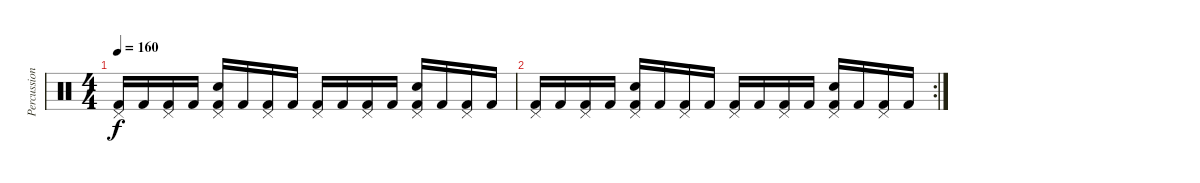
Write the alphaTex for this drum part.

\track ("Percussion" "Percussion") {instrument percussion}
\staff {score}
\articulation defaults
\ts (4 4)
\tempo 160
\clef neutral
\ks c
("Pedal Hi-Hat (hit)" "Kick (hit) 2").16{dy f} "Kick (hit) 2".16 ("Pedal Hi-Hat (hit)" "Kick (hit) 2").16 "Kick (hit) 2".16 ("Pedal Hi-Hat (hit)" "Kick (hit) 2" "Snare (hit) 2").16 "Kick (hit) 2".16 ("Pedal Hi-Hat (hit)" "Kick (hit) 2").16 "Kick (hit) 2".16 ("Pedal Hi-Hat (hit)" "Kick (hit) 2").16 "Kick (hit) 2".16 ("Pedal Hi-Hat (hit)" "Kick (hit) 2").16 "Kick (hit) 2".16 ("Pedal Hi-Hat (hit)" "Kick (hit) 2" "Snare (hit) 2").16 "Kick (hit) 2".16 ("Pedal Hi-Hat (hit)" "Kick (hit) 2").16 "Kick (hit) 2".16 |
\rc 2
("Pedal Hi-Hat (hit)" "Kick (hit) 2").16 "Kick (hit) 2".16 ("Pedal Hi-Hat (hit)" "Kick (hit) 2").16 "Kick (hit) 2".16 ("Pedal Hi-Hat (hit)" "Kick (hit) 2" "Snare (hit) 2").16 "Kick (hit) 2".16 ("Pedal Hi-Hat (hit)" "Kick (hit) 2").16 "Kick (hit) 2".16 ("Pedal Hi-Hat (hit)" "Kick (hit) 2").16 "Kick (hit) 2".16 ("Pedal Hi-Hat (hit)" "Kick (hit) 2").16 "Kick (hit) 2".16 ("Pedal Hi-Hat (hit)" "Kick (hit) 2" "Snare (hit) 2").16 "Kick (hit) 2".16 ("Pedal Hi-Hat (hit)" "Kick (hit) 2").16 "Kick (hit) 2".16
